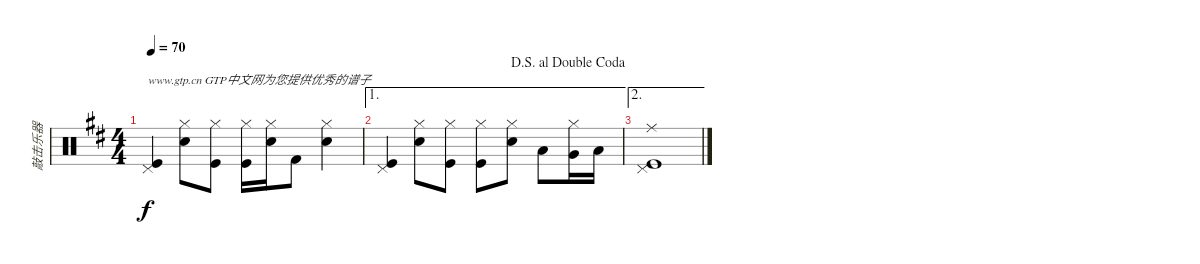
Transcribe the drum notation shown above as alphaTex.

\track ("敲击乐器" "敲击乐器") {instrument percussion}
\staff {score}
\articulation defaults
\ts (4 4)
\tempo 70
\clef neutral
\ks d
("Kick (hit)" "Pedal Hi-Hat (hit)").4{txt "www.gtp.cn GTP中文网为您提供优秀的谱子" dy f} ("Snare (hit) 2" "Hi-Hat (closed)").8 ("Kick (hit)" "Hi-Hat (closed)").8 ("Kick (hit)" "Hi-Hat (closed)").16 ("Snare (hit) 2" "Hi-Hat (closed)").16 "Kick (hit) 2".8 ("Snare (hit) 2" "Hi-Hat (closed)").4 |
\ae 1
\jump dalsegnoaldoublecoda
("Kick (hit)" "Pedal Hi-Hat (hit)").4 ("Snare (hit) 2" "Hi-Hat (closed)").8 ("Kick (hit)" "Hi-Hat (closed)").8 ("Kick (hit)" "Hi-Hat (closed)").8 ("Hi-Hat (closed)" "Electric Snare (hit)").8 "Low Floor Tom (hit)".8 ("Hi-Hat (closed)" "Very Low Tom (hit)").16 "Low Tom (hit)".16 |
\ae 2
("Kick (hit)" "Pedal Hi-Hat (hit)" "Ride (middle)").1
